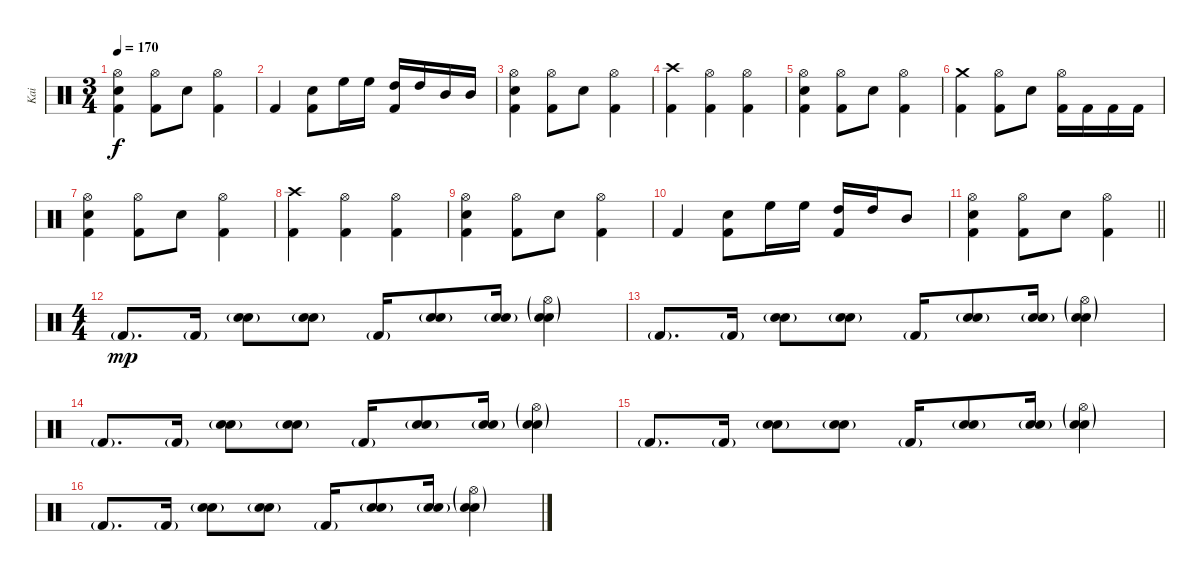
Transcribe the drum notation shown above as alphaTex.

\track ("Kai" "Kai") {instrument percussion}
\staff {score}
\articulation defaults
\ts (3 4)
\tempo 170
\clef neutral
\ks c
("Hi-Hat (open)" "Electric Snare (hit)" "Kick (hit) 2").4{dy f} ("Hi-Hat (open)" "Kick (hit) 2").8 "Electric Snare (hit)".8 ("Hi-Hat (open)" "Kick (hit) 2").4 |
"Kick (hit) 2".4 ("Electric Snare (hit)" "Kick (hit) 2").8 "High Floor Tom (hit)".16 "High Floor Tom (hit)".16 ("High Tom (hit)" "Kick (hit) 2").16 "High Tom (hit)".16 "Mid Tom (hit)".16 "Mid Tom (hit)".16 |
("Hi-Hat (open)" "Electric Snare (hit)" "Kick (hit) 2").4 ("Hi-Hat (open)" "Kick (hit) 2").8 "Electric Snare (hit)".8 ("Hi-Hat (open)" "Kick (hit) 2").4 |
("Crash high (hit)" "Kick (hit) 2").4 ("Hi-Hat (open)" "Kick (hit) 2").4 ("Hi-Hat (open)" "Kick (hit) 2").4 |
("Hi-Hat (open)" "Electric Snare (hit)" "Kick (hit) 2").4 ("Hi-Hat (open)" "Kick (hit) 2").8 "Electric Snare (hit)".8 ("Hi-Hat (open)" "Kick (hit) 2").4 |
("Crash medium (hit)" "Kick (hit) 2").4 ("Hi-Hat (open)" "Kick (hit) 2").8 "Electric Snare (hit)".8 ("Hi-Hat (open)" "Kick (hit) 2").16 "Kick (hit) 2".16 "Kick (hit) 2".16 "Kick (hit) 2".16 |
("Hi-Hat (open)" "Electric Snare (hit)" "Kick (hit) 2").4 ("Hi-Hat (open)" "Kick (hit) 2").8 "Electric Snare (hit)".8 ("Hi-Hat (open)" "Kick (hit) 2").4 |
("Crash high (hit)" "Kick (hit) 2").4 ("Hi-Hat (open)" "Kick (hit) 2").4 ("Hi-Hat (open)" "Kick (hit) 2").4 |
("Hi-Hat (open)" "Electric Snare (hit)" "Kick (hit) 2").4 ("Hi-Hat (open)" "Kick (hit) 2").8 "Electric Snare (hit)".8 ("Hi-Hat (open)" "Kick (hit) 2").4 |
"Kick (hit) 2".4 ("Electric Snare (hit)" "Kick (hit) 2").8 "High Floor Tom (hit)".16 "High Floor Tom (hit)".16 ("High Tom (hit)" "Kick (hit) 2").16 "High Tom (hit)".16 "Mid Tom (hit)".8 |
\barLineRight lightlight
("Hi-Hat (open)" "Electric Snare (hit)" "Kick (hit) 2").4 ("Hi-Hat (open)" "Kick (hit) 2").8 "Electric Snare (hit)".8 ("Hi-Hat (open)" "Kick (hit) 2").4 |
\ts (4 4)
\section ("" "")
"Kick (hit) 2"{g}.8{d dy mp} "Kick (hit) 2"{g}.16 ("Snare (hit) 2"{g} "Electric Snare (hit)"{g}).8 ("Snare (hit) 2"{g} "Electric Snare (hit)"{g}).8 "Kick (hit) 2"{g}.16 ("Snare (hit) 2"{g} "Electric Snare (hit)"{g}).8 ("Snare (hit) 2"{g} "Electric Snare (hit)"{g}).16 ("Hi-Hat (open)"{g} "Snare (hit) 2"{g} "Electric Snare (hit)"{g}).4 |
"Kick (hit) 2"{g}.8{d} "Kick (hit) 2"{g}.16 ("Snare (hit) 2"{g} "Electric Snare (hit)"{g}).8 ("Snare (hit) 2"{g} "Electric Snare (hit)"{g}).8 "Kick (hit) 2"{g}.16 ("Snare (hit) 2"{g} "Electric Snare (hit)"{g}).8 ("Snare (hit) 2"{g} "Electric Snare (hit)"{g}).16 ("Hi-Hat (open)"{g} "Snare (hit) 2"{g} "Electric Snare (hit)"{g}).4 |
"Kick (hit) 2"{g}.8{d} "Kick (hit) 2"{g}.16 ("Snare (hit) 2"{g} "Electric Snare (hit)"{g}).8 ("Snare (hit) 2"{g} "Electric Snare (hit)"{g}).8 "Kick (hit) 2"{g}.16 ("Snare (hit) 2"{g} "Electric Snare (hit)"{g}).8 ("Snare (hit) 2"{g} "Electric Snare (hit)"{g}).16 ("Hi-Hat (open)"{g} "Snare (hit) 2"{g} "Electric Snare (hit)"{g}).4 |
"Kick (hit) 2"{g}.8{d} "Kick (hit) 2"{g}.16 ("Snare (hit) 2"{g} "Electric Snare (hit)"{g}).8 ("Snare (hit) 2"{g} "Electric Snare (hit)"{g}).8 "Kick (hit) 2"{g}.16 ("Snare (hit) 2"{g} "Electric Snare (hit)"{g}).8 ("Snare (hit) 2"{g} "Electric Snare (hit)"{g}).16 ("Hi-Hat (open)"{g} "Snare (hit) 2"{g} "Electric Snare (hit)"{g}).4 |
"Kick (hit) 2"{g}.8{d} "Kick (hit) 2"{g}.16 ("Snare (hit) 2"{g} "Electric Snare (hit)"{g}).8 ("Snare (hit) 2"{g} "Electric Snare (hit)"{g}).8 "Kick (hit) 2"{g}.16 ("Snare (hit) 2"{g} "Electric Snare (hit)"{g}).8 ("Snare (hit) 2"{g} "Electric Snare (hit)"{g}).16 ("Hi-Hat (open)"{g} "Snare (hit) 2"{g} "Electric Snare (hit)"{g}).4
